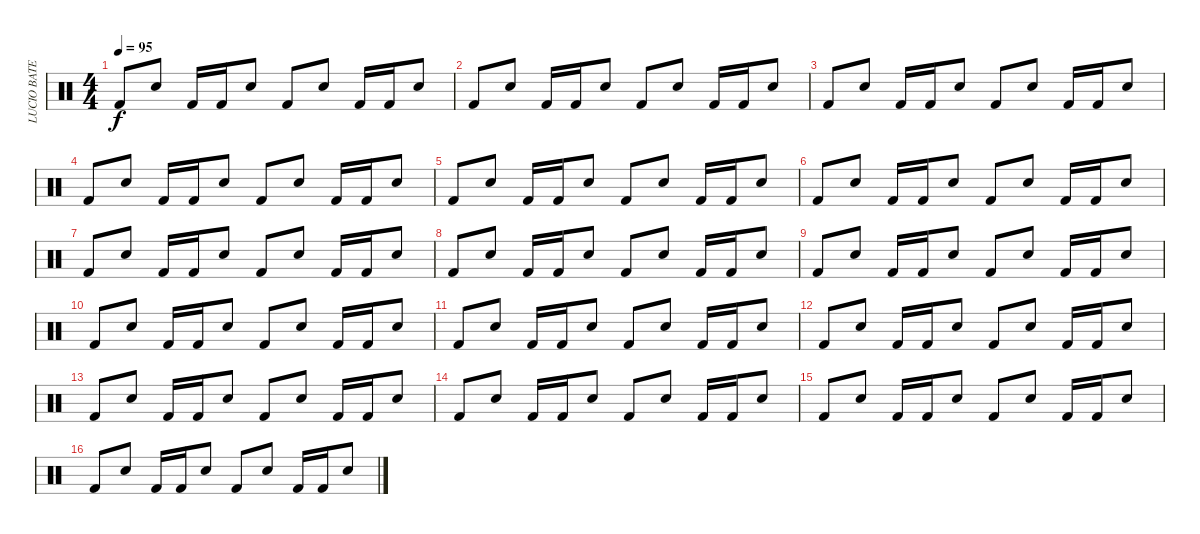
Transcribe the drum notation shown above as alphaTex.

\track ("LUCIO BATERIA" "LUCIO BATE") {instrument percussion}
\staff {score}
\articulation defaults
\ts (4 4)
\tempo 95
\clef neutral
\ks c "Kick (hit) 2".8{dy f} "Electric Snare (hit)".8 "Kick (hit) 2".16 "Kick (hit) 2".16 "Electric Snare (hit)".8 "Kick (hit) 2".8 "Electric Snare (hit)".8 "Kick (hit) 2".16 "Kick (hit) 2".16 "Electric Snare (hit)".8
|
"Kick (hit) 2".8 "Electric Snare (hit)".8 "Kick (hit) 2".16 "Kick (hit) 2".16 "Electric Snare (hit)".8 "Kick (hit) 2".8 "Electric Snare (hit)".8 "Kick (hit) 2".16 "Kick (hit) 2".16 "Electric Snare (hit)".8 |
"Kick (hit) 2".8 "Electric Snare (hit)".8 "Kick (hit) 2".16 "Kick (hit) 2".16 "Electric Snare (hit)".8 "Kick (hit) 2".8 "Electric Snare (hit)".8 "Kick (hit) 2".16 "Kick (hit) 2".16 "Electric Snare (hit)".8 |
"Kick (hit) 2".8 "Electric Snare (hit)".8 "Kick (hit) 2".16 "Kick (hit) 2".16 "Electric Snare (hit)".8 "Kick (hit) 2".8 "Electric Snare (hit)".8 "Kick (hit) 2".16 "Kick (hit) 2".16 "Electric Snare (hit)".8 |
"Kick (hit) 2".8 "Electric Snare (hit)".8 "Kick (hit) 2".16 "Kick (hit) 2".16 "Electric Snare (hit)".8 "Kick (hit) 2".8 "Electric Snare (hit)".8 "Kick (hit) 2".16 "Kick (hit) 2".16 "Electric Snare (hit)".8 |
"Kick (hit) 2".8 "Electric Snare (hit)".8 "Kick (hit) 2".16 "Kick (hit) 2".16 "Electric Snare (hit)".8 "Kick (hit) 2".8 "Electric Snare (hit)".8 "Kick (hit) 2".16 "Kick (hit) 2".16 "Electric Snare (hit)".8 |
"Kick (hit) 2".8 "Electric Snare (hit)".8 "Kick (hit) 2".16 "Kick (hit) 2".16 "Electric Snare (hit)".8 "Kick (hit) 2".8 "Electric Snare (hit)".8 "Kick (hit) 2".16 "Kick (hit) 2".16 "Electric Snare (hit)".8 |
"Kick (hit) 2".8 "Electric Snare (hit)".8 "Kick (hit) 2".16 "Kick (hit) 2".16 "Electric Snare (hit)".8 "Kick (hit) 2".8 "Electric Snare (hit)".8 "Kick (hit) 2".16 "Kick (hit) 2".16 "Electric Snare (hit)".8 |
"Kick (hit) 2".8 "Electric Snare (hit)".8 "Kick (hit) 2".16 "Kick (hit) 2".16 "Electric Snare (hit)".8 "Kick (hit) 2".8 "Electric Snare (hit)".8 "Kick (hit) 2".16 "Kick (hit) 2".16 "Electric Snare (hit)".8 |
"Kick (hit) 2".8 "Electric Snare (hit)".8 "Kick (hit) 2".16 "Kick (hit) 2".16 "Electric Snare (hit)".8 "Kick (hit) 2".8 "Electric Snare (hit)".8 "Kick (hit) 2".16 "Kick (hit) 2".16 "Electric Snare (hit)".8 |
"Kick (hit) 2".8 "Electric Snare (hit)".8 "Kick (hit) 2".16 "Kick (hit) 2".16 "Electric Snare (hit)".8 "Kick (hit) 2".8 "Electric Snare (hit)".8 "Kick (hit) 2".16 "Kick (hit) 2".16 "Electric Snare (hit)".8 |
"Kick (hit) 2".8 "Electric Snare (hit)".8 "Kick (hit) 2".16 "Kick (hit) 2".16 "Electric Snare (hit)".8 "Kick (hit) 2".8 "Electric Snare (hit)".8 "Kick (hit) 2".16 "Kick (hit) 2".16 "Electric Snare (hit)".8 |
"Kick (hit) 2".8 "Electric Snare (hit)".8 "Kick (hit) 2".16 "Kick (hit) 2".16 "Electric Snare (hit)".8 "Kick (hit) 2".8 "Electric Snare (hit)".8 "Kick (hit) 2".16 "Kick (hit) 2".16 "Electric Snare (hit)".8 |
"Kick (hit) 2".8 "Electric Snare (hit)".8 "Kick (hit) 2".16 "Kick (hit) 2".16 "Electric Snare (hit)".8 "Kick (hit) 2".8 "Electric Snare (hit)".8 "Kick (hit) 2".16 "Kick (hit) 2".16 "Electric Snare (hit)".8 |
"Kick (hit) 2".8 "Electric Snare (hit)".8 "Kick (hit) 2".16 "Kick (hit) 2".16 "Electric Snare (hit)".8 "Kick (hit) 2".8 "Electric Snare (hit)".8 "Kick (hit) 2".16 "Kick (hit) 2".16 "Electric Snare (hit)".8 |
"Kick (hit) 2".8 "Electric Snare (hit)".8 "Kick (hit) 2".16 "Kick (hit) 2".16 "Electric Snare (hit)".8 "Kick (hit) 2".8 "Electric Snare (hit)".8 "Kick (hit) 2".16 "Kick (hit) 2".16 "Electric Snare (hit)".8
